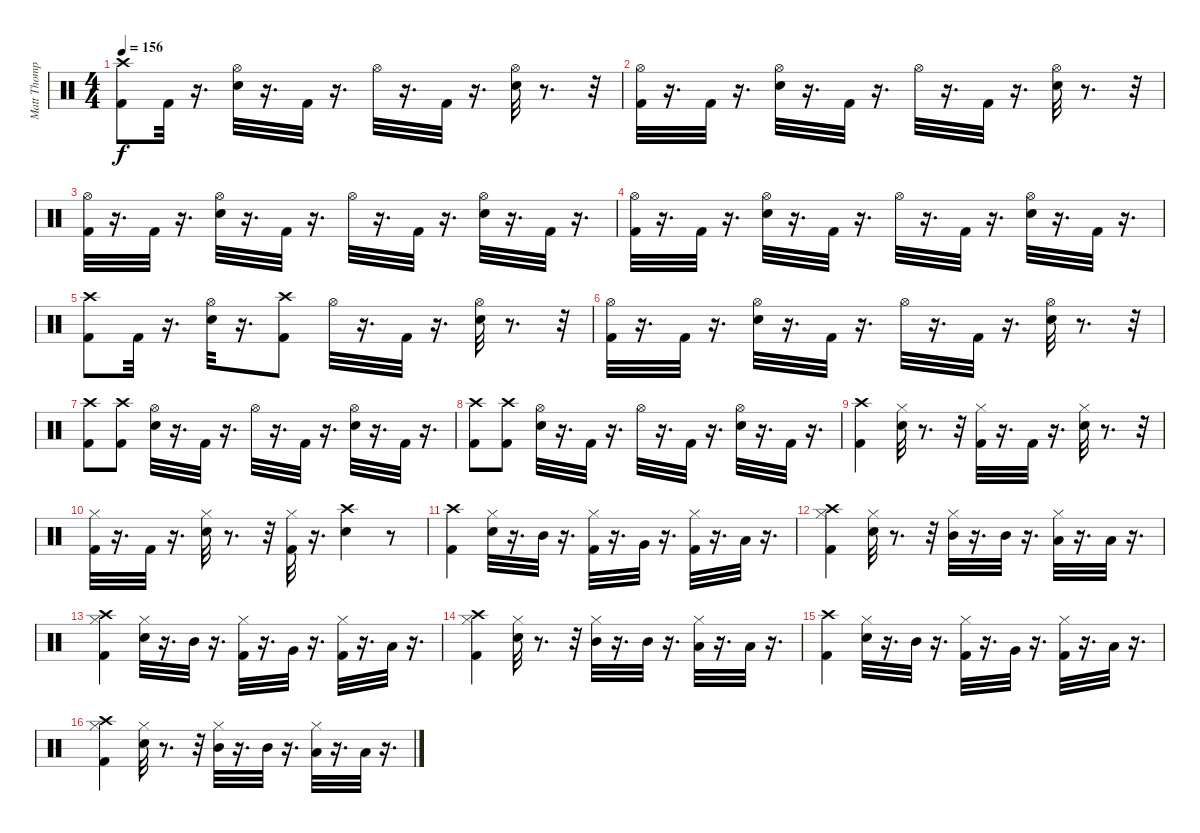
\track ("Matt Thompson" "Matt Thomp") {instrument percussion}
\staff {score}
\articulation defaults
\ts (4 4)
\tempo 156
\clef neutral
\ks c
("Crash high (hit)" "Kick (hit) 2").8{dy f} "Kick (hit) 2".32 r.16{d} ("Hi-Hat (open)" "Snare (hit) 2").32 r.16{d} "Kick (hit) 2".32 r.16{d} "Hi-Hat (open)".32 r.16{d} "Kick (hit) 2".32 r.16{d} ("Hi-Hat (open)" "Snare (hit) 2").32 r.8{d} r.32 |
("Hi-Hat (open)" "Kick (hit) 2").32 r.16{d} "Kick (hit) 2".32 r.16{d} ("Hi-Hat (open)" "Snare (hit) 2").32 r.16{d} "Kick (hit) 2".32 r.16{d} "Hi-Hat (open)".32 r.16{d} "Kick (hit) 2".32 r.16{d} ("Hi-Hat (open)" "Snare (hit) 2").32 r.8{d} r.32 |
("Hi-Hat (open)" "Kick (hit) 2").32 r.16{d} "Kick (hit) 2".32 r.16{d} ("Hi-Hat (open)" "Snare (hit) 2").32 r.16{d} "Kick (hit) 2".32 r.16{d} "Hi-Hat (open)".32 r.16{d} "Kick (hit) 2".32 r.16{d} ("Hi-Hat (open)" "Snare (hit) 2").32 r.16{d} "Kick (hit) 2".32 r.16{d} |
("Hi-Hat (open)" "Kick (hit) 2").32 r.16{d} "Kick (hit) 2".32 r.16{d} ("Hi-Hat (open)" "Snare (hit) 2").32 r.16{d} "Kick (hit) 2".32 r.16{d} "Hi-Hat (open)".32 r.16{d} "Kick (hit) 2".32 r.16{d} ("Hi-Hat (open)" "Snare (hit) 2").32 r.16{d} "Kick (hit) 2".32 r.16{d} |
("Crash high (hit)" "Kick (hit) 2").8 "Kick (hit) 2".32 r.16{d} ("Hi-Hat (open)" "Snare (hit) 2").32 r.16{d} ("Crash high (hit)" "Kick (hit) 2").8 "Hi-Hat (open)".32 r.16{d} "Kick (hit) 2".32 r.16{d} ("Hi-Hat (open)" "Snare (hit) 2").32 r.8{d} r.32 |
("Hi-Hat (open)" "Kick (hit) 2").32 r.16{d} "Kick (hit) 2".32 r.16{d} ("Hi-Hat (open)" "Snare (hit) 2").32 r.16{d} "Kick (hit) 2".32 r.16{d} "Hi-Hat (open)".32 r.16{d} "Kick (hit) 2".32 r.16{d} ("Hi-Hat (open)" "Snare (hit) 2").32 r.8{d} r.32 |
("Crash high (hit)" "Kick (hit) 2").8 ("Crash high (hit)" "Kick (hit) 2").8 ("Hi-Hat (open)" "Snare (hit) 2").32 r.16{d} "Kick (hit) 2".32 r.16{d} "Hi-Hat (open)".32 r.16{d} "Kick (hit) 2".32 r.16{d} ("Hi-Hat (open)" "Snare (hit) 2").32 r.16{d} "Kick (hit) 2".32 r.16{d} |
("Crash high (hit)" "Kick (hit) 2").8 ("Crash high (hit)" "Kick (hit) 2").8 ("Hi-Hat (open)" "Snare (hit) 2").32 r.16{d} "Kick (hit) 2".32 r.16{d} "Hi-Hat (open)".32 r.16{d} "Kick (hit) 2".32 r.16{d} ("Hi-Hat (open)" "Snare (hit) 2").32 r.16{d} "Kick (hit) 2".32 r.16{d} |
("Crash high (hit)" "Kick (hit) 2").4 ("Hi-Hat (closed)" "Snare (hit) 2").32 r.8{d} r.32 ("Hi-Hat (closed)" "Kick (hit) 2").32 r.16{d} "Kick (hit) 2".32 r.16{d} ("Hi-Hat (closed)" "Snare (hit) 2").32 r.8{d} r.32 |
("Hi-Hat (closed)" "Kick (hit) 2").32 r.16{d} "Kick (hit) 2".32 r.16{d} ("Hi-Hat (closed)" "Snare (hit) 2").32 r.8{d} r.32 ("Hi-Hat (closed)" "Kick (hit) 2").32 r.16{d} ("Crash high (hit)" "Snare (hit) 2").4 r.8 |
("Crash high (hit)" "Kick (hit) 2").4 ("Hi-Hat (closed)" "Snare (hit) 2").32 r.16{d} "Mid Tom (hit)".32 r.16{d} ("Hi-Hat (closed)" "Kick (hit) 2").32 r.16{d} "Very Low Tom (hit)".32 r.16{d} ("Hi-Hat (closed)" "Kick (hit) 2").32 r.16{d} "Low Floor Tom (hit)".32 r.16{d} |
("Hi-Hat (closed)" "Kick (hit) 2" "Crash high (hit)").4 ("Hi-Hat (closed)" "Snare (hit) 2").32 r.8{d} r.32 ("Hi-Hat (closed)" "Mid Tom (hit)").32 r.16{d} "Mid Tom (hit)".32 r.16{d} ("Hi-Hat (closed)" "Low Tom (hit)").32 r.16{d} "Low Tom (hit)".32 r.16{d} |
("Hi-Hat (closed)" "Crash high (hit)" "Kick (hit) 2").4 ("Hi-Hat (closed)" "Snare (hit) 2").32 r.16{d} "Mid Tom (hit)".32 r.16{d} ("Hi-Hat (closed)" "Kick (hit) 2").32 r.16{d} "Very Low Tom (hit)".32 r.16{d} ("Hi-Hat (closed)" "Kick (hit) 2").32 r.16{d} "Low Floor Tom (hit)".32 r.16{d} |
("Hi-Hat (closed)" "Kick (hit) 2" "Crash high (hit)").4 ("Hi-Hat (closed)" "Snare (hit) 2").32 r.8{d} r.32 ("Hi-Hat (closed)" "Mid Tom (hit)").32 r.16{d} "Mid Tom (hit)".32 r.16{d} ("Hi-Hat (closed)" "Low Tom (hit)").32 r.16{d} "Low Tom (hit)".32 r.16{d} |
("Crash high (hit)" "Kick (hit) 2").4 ("Hi-Hat (closed)" "Snare (hit) 2").32 r.16{d} "Mid Tom (hit)".32 r.16{d} ("Hi-Hat (closed)" "Kick (hit) 2").32 r.16{d} "Very Low Tom (hit)".32 r.16{d} ("Hi-Hat (closed)" "Kick (hit) 2").32 r.16{d} "Low Floor Tom (hit)".32 r.16{d} |
("Hi-Hat (closed)" "Kick (hit) 2" "Crash high (hit)").4 ("Hi-Hat (closed)" "Snare (hit) 2").32 r.8{d} r.32 ("Hi-Hat (closed)" "Mid Tom (hit)").32 r.16{d} "Mid Tom (hit)".32 r.16{d} ("Hi-Hat (closed)" "Low Tom (hit)").32 r.16{d} "Low Tom (hit)".32 r.16{d}
